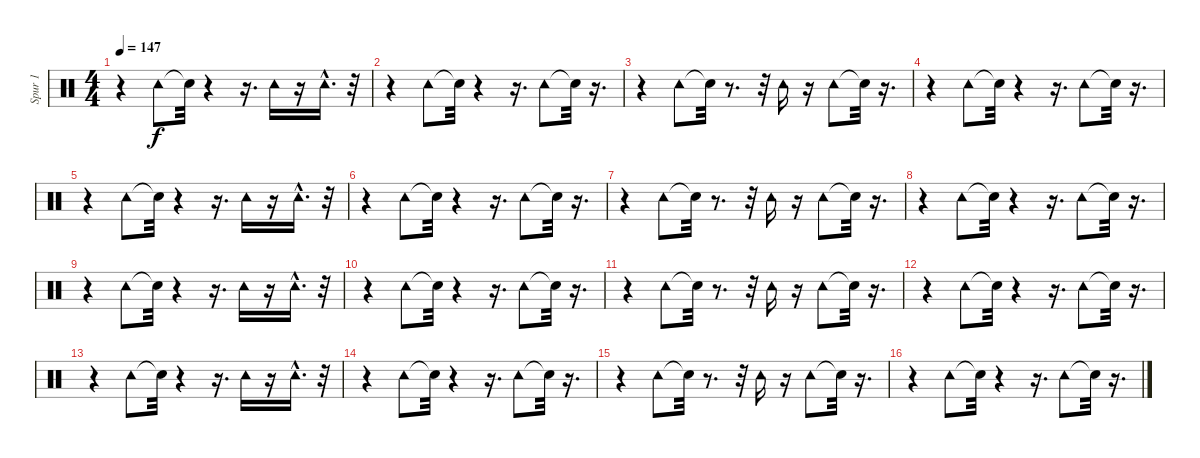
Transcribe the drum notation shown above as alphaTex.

\track ("Spur 1" "Spur 1") {instrument percussion}
\staff {score}
\articulation defaults
\ts (4 4)
\tempo 147
\clef neutral
\ks c
r.4{dy f} "Tambourine (hit)".8 "Snare (hit)"{t}.32 r.4 r.16{d} "Tambourine (hit)".16 r.16 "Tambourine (hit)"{hac}.16{d} r.32 |
r.4 "Tambourine (hit)".8 "Snare (hit)"{t}.32 r.4 r.16{d} "Tambourine (hit)".8 "Snare (hit)"{t}.32 r.16{d} |
r.4 "Tambourine (hit)".8 "Snare (hit)"{t}.32 r.8{d} r.32 "Tambourine (hit)".16 r.16 "Tambourine (hit)".8 "Snare (hit)"{t}.32 r.16{d} |
r.4 "Tambourine (hit)".8 "Snare (hit)"{t}.32 r.4 r.16{d} "Tambourine (hit)".8 "Snare (hit)"{t}.32 r.16{d} |
r.4 "Tambourine (hit)".8 "Snare (hit)"{t}.32 r.4 r.16{d} "Tambourine (hit)".16 r.16 "Tambourine (hit)"{hac}.16{d} r.32 |
r.4 "Tambourine (hit)".8 "Snare (hit)"{t}.32 r.4 r.16{d} "Tambourine (hit)".8 "Snare (hit)"{t}.32 r.16{d} |
r.4 "Tambourine (hit)".8 "Snare (hit)"{t}.32 r.8{d} r.32 "Tambourine (hit)".16 r.16 "Tambourine (hit)".8 "Snare (hit)"{t}.32 r.16{d} |
r.4 "Tambourine (hit)".8 "Snare (hit)"{t}.32 r.4 r.16{d} "Tambourine (hit)".8 "Snare (hit)"{t}.32 r.16{d} |
r.4 "Tambourine (hit)".8 "Snare (hit)"{t}.32 r.4 r.16{d} "Tambourine (hit)".16 r.16 "Tambourine (hit)"{hac}.16{d} r.32 |
r.4 "Tambourine (hit)".8 "Snare (hit)"{t}.32 r.4 r.16{d} "Tambourine (hit)".8 "Snare (hit)"{t}.32 r.16{d} |
r.4 "Tambourine (hit)".8 "Snare (hit)"{t}.32 r.8{d} r.32 "Tambourine (hit)".16 r.16 "Tambourine (hit)".8 "Snare (hit)"{t}.32 r.16{d} |
r.4 "Tambourine (hit)".8 "Snare (hit)"{t}.32 r.4 r.16{d} "Tambourine (hit)".8 "Snare (hit)"{t}.32 r.16{d} |
r.4 "Tambourine (hit)".8 "Snare (hit)"{t}.32 r.4 r.16{d} "Tambourine (hit)".16 r.16 "Tambourine (hit)"{hac}.16{d} r.32 |
r.4 "Tambourine (hit)".8 "Snare (hit)"{t}.32 r.4 r.16{d} "Tambourine (hit)".8 "Snare (hit)"{t}.32 r.16{d} |
r.4 "Tambourine (hit)".8 "Snare (hit)"{t}.32 r.8{d} r.32 "Tambourine (hit)".16 r.16 "Tambourine (hit)".8 "Snare (hit)"{t}.32 r.16{d} |
r.4 "Tambourine (hit)".8 "Snare (hit)"{t}.32 r.4 r.16{d} "Tambourine (hit)".8 "Snare (hit)"{t}.32 r.16{d}
